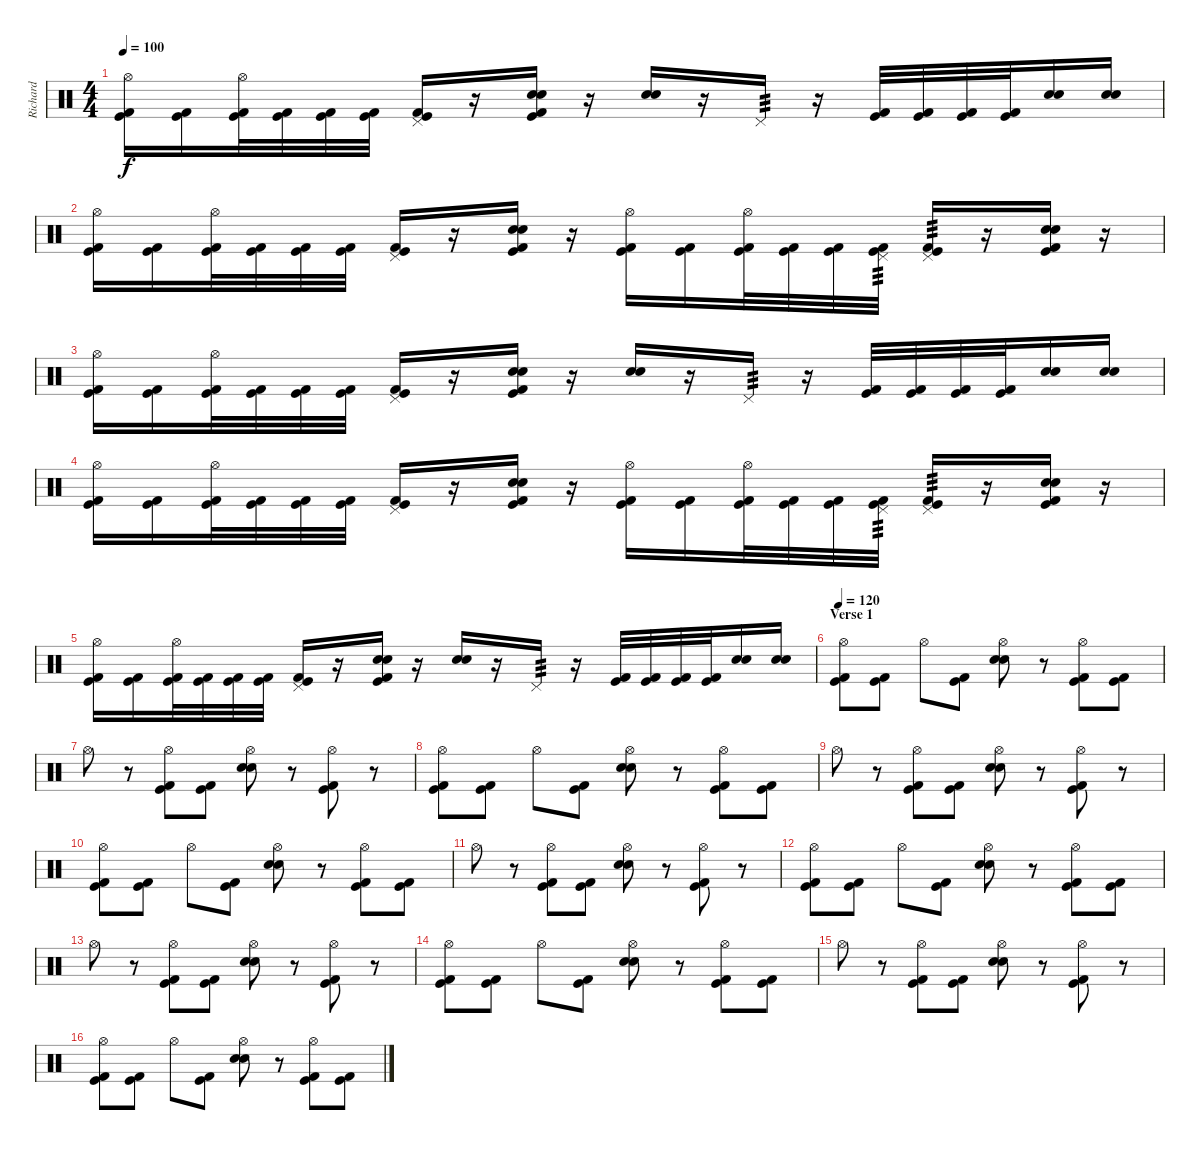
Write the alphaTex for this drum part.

\track ("Richard" "Richard") {instrument percussion}
\staff {score}
\articulation defaults
\ts (4 4)
\tempo 100
\clef neutral
\ks c
("Hi-Hat (open)" "Kick (hit)" "Kick (hit) 2").16{dy f} ("Kick (hit)" "Kick (hit) 2").16 ("Hi-Hat (open)" "Kick (hit)" "Kick (hit) 2").32 ("Kick (hit)" "Kick (hit) 2").32 ("Kick (hit)" "Kick (hit) 2").32 ("Kick (hit)" "Kick (hit) 2").32 ("Pedal Hi-Hat (hit)" "Kick (hit)" "Kick (hit) 2").16 r.16 ("Snare (hit) 2" "Electric Snare (hit)" "Kick (hit)" "Kick (hit) 2").16 r.16 ("Snare (hit) 2" "Electric Snare (hit)").16 r.16 "Pedal Hi-Hat (hit)".16{tp 3} r.16 ("Kick (hit)" "Kick (hit) 2").32 ("Kick (hit)" "Kick (hit) 2").32 ("Kick (hit)" "Kick (hit) 2").32 ("Kick (hit)" "Kick (hit) 2").32 ("Snare (hit) 2" "Electric Snare (hit)").16 ("Snare (hit) 2" "Electric Snare (hit)").16 |
("Hi-Hat (open)" "Kick (hit)" "Kick (hit) 2").16 ("Kick (hit)" "Kick (hit) 2").16 ("Hi-Hat (open)" "Kick (hit)" "Kick (hit) 2").32 ("Kick (hit)" "Kick (hit) 2").32 ("Kick (hit)" "Kick (hit) 2").32 ("Kick (hit)" "Kick (hit) 2").32 ("Pedal Hi-Hat (hit)" "Kick (hit)" "Kick (hit) 2").16 r.16 ("Snare (hit) 2" "Electric Snare (hit)" "Kick (hit)" "Kick (hit) 2").16 r.16 ("Hi-Hat (open)" "Kick (hit)" "Kick (hit) 2").16 ("Kick (hit)" "Kick (hit) 2").16 ("Hi-Hat (open)" "Kick (hit)" "Kick (hit) 2").32 ("Kick (hit)" "Kick (hit) 2").32 ("Kick (hit)" "Kick (hit) 2").32 ("Pedal Hi-Hat (hit)" "Kick (hit)" "Kick (hit) 2").32{tp 3} ("Pedal Hi-Hat (hit)" "Kick (hit)" "Kick (hit) 2").16{tp 3} r.16 ("Snare (hit) 2" "Electric Snare (hit)" "Kick (hit)" "Kick (hit) 2").16 r.16 |
("Hi-Hat (open)" "Kick (hit)" "Kick (hit) 2").16 ("Kick (hit)" "Kick (hit) 2").16 ("Hi-Hat (open)" "Kick (hit)" "Kick (hit) 2").32 ("Kick (hit)" "Kick (hit) 2").32 ("Kick (hit)" "Kick (hit) 2").32 ("Kick (hit)" "Kick (hit) 2").32 ("Pedal Hi-Hat (hit)" "Kick (hit)" "Kick (hit) 2").16 r.16 ("Snare (hit) 2" "Electric Snare (hit)" "Kick (hit)" "Kick (hit) 2").16 r.16 ("Snare (hit) 2" "Electric Snare (hit)").16 r.16 "Pedal Hi-Hat (hit)".16{tp 3} r.16 ("Kick (hit)" "Kick (hit) 2").32 ("Kick (hit)" "Kick (hit) 2").32 ("Kick (hit)" "Kick (hit) 2").32 ("Kick (hit)" "Kick (hit) 2").32 ("Snare (hit) 2" "Electric Snare (hit)").16 ("Snare (hit) 2" "Electric Snare (hit)").16 |
("Hi-Hat (open)" "Kick (hit)" "Kick (hit) 2").16 ("Kick (hit)" "Kick (hit) 2").16 ("Hi-Hat (open)" "Kick (hit)" "Kick (hit) 2").32 ("Kick (hit)" "Kick (hit) 2").32 ("Kick (hit)" "Kick (hit) 2").32 ("Kick (hit)" "Kick (hit) 2").32 ("Pedal Hi-Hat (hit)" "Kick (hit)" "Kick (hit) 2").16 r.16 ("Snare (hit) 2" "Electric Snare (hit)" "Kick (hit)" "Kick (hit) 2").16 r.16 ("Hi-Hat (open)" "Kick (hit)" "Kick (hit) 2").16 ("Kick (hit)" "Kick (hit) 2").16 ("Hi-Hat (open)" "Kick (hit)" "Kick (hit) 2").32 ("Kick (hit)" "Kick (hit) 2").32 ("Kick (hit)" "Kick (hit) 2").32 ("Pedal Hi-Hat (hit)" "Kick (hit)" "Kick (hit) 2").32{tp 3} ("Pedal Hi-Hat (hit)" "Kick (hit)" "Kick (hit) 2").16{tp 3} r.16 ("Snare (hit) 2" "Electric Snare (hit)" "Kick (hit)" "Kick (hit) 2").16 r.16 |
("Hi-Hat (open)" "Kick (hit)" "Kick (hit) 2").16 ("Kick (hit)" "Kick (hit) 2").16 ("Hi-Hat (open)" "Kick (hit)" "Kick (hit) 2").32 ("Kick (hit)" "Kick (hit) 2").32 ("Kick (hit)" "Kick (hit) 2").32 ("Kick (hit)" "Kick (hit) 2").32 ("Pedal Hi-Hat (hit)" "Kick (hit)" "Kick (hit) 2").16 r.16 ("Snare (hit) 2" "Electric Snare (hit)" "Kick (hit)" "Kick (hit) 2").16 r.16 ("Snare (hit) 2" "Electric Snare (hit)").16 r.16 "Pedal Hi-Hat (hit)".16{tp 3} r.16 ("Kick (hit)" "Kick (hit) 2").32 ("Kick (hit)" "Kick (hit) 2").32 ("Kick (hit)" "Kick (hit) 2").32 ("Kick (hit)" "Kick (hit) 2").32 ("Snare (hit) 2" "Electric Snare (hit)").16 ("Snare (hit) 2" "Electric Snare (hit)").16 |
\section ("" "Verse 1")
\tempo 120
("Hi-Hat (open)" "Kick (hit)" "Kick (hit) 2").8 ("Kick (hit)" "Kick (hit) 2").8 "Hi-Hat (open)".8 ("Kick (hit)" "Kick (hit) 2").8 ("Hi-Hat (open)" "Snare (hit) 2" "Electric Snare (hit)").8 r.8 ("Hi-Hat (open)" "Kick (hit)" "Kick (hit) 2").8 ("Kick (hit)" "Kick (hit) 2").8 |
"Hi-Hat (open)".8 r.8 ("Hi-Hat (open)" "Kick (hit)" "Kick (hit) 2").8 ("Kick (hit)" "Kick (hit) 2").8 ("Hi-Hat (open)" "Snare (hit) 2" "Electric Snare (hit)").8 r.8 ("Hi-Hat (open)" "Kick (hit)" "Kick (hit) 2").8 r.8 |
("Hi-Hat (open)" "Kick (hit)" "Kick (hit) 2").8 ("Kick (hit)" "Kick (hit) 2").8 "Hi-Hat (open)".8 ("Kick (hit)" "Kick (hit) 2").8 ("Hi-Hat (open)" "Snare (hit) 2" "Electric Snare (hit)").8 r.8 ("Hi-Hat (open)" "Kick (hit)" "Kick (hit) 2").8 ("Kick (hit)" "Kick (hit) 2").8 |
"Hi-Hat (open)".8 r.8 ("Hi-Hat (open)" "Kick (hit)" "Kick (hit) 2").8 ("Kick (hit)" "Kick (hit) 2").8 ("Hi-Hat (open)" "Snare (hit) 2" "Electric Snare (hit)").8 r.8 ("Hi-Hat (open)" "Kick (hit)" "Kick (hit) 2").8 r.8 |
("Hi-Hat (open)" "Kick (hit)" "Kick (hit) 2").8 ("Kick (hit)" "Kick (hit) 2").8 "Hi-Hat (open)".8 ("Kick (hit)" "Kick (hit) 2").8 ("Hi-Hat (open)" "Snare (hit) 2" "Electric Snare (hit)").8 r.8 ("Hi-Hat (open)" "Kick (hit)" "Kick (hit) 2").8 ("Kick (hit)" "Kick (hit) 2").8 |
"Hi-Hat (open)".8 r.8 ("Hi-Hat (open)" "Kick (hit)" "Kick (hit) 2").8 ("Kick (hit)" "Kick (hit) 2").8 ("Hi-Hat (open)" "Snare (hit) 2" "Electric Snare (hit)").8 r.8 ("Hi-Hat (open)" "Kick (hit)" "Kick (hit) 2").8 r.8 |
("Hi-Hat (open)" "Kick (hit)" "Kick (hit) 2").8 ("Kick (hit)" "Kick (hit) 2").8 "Hi-Hat (open)".8 ("Kick (hit)" "Kick (hit) 2").8 ("Hi-Hat (open)" "Snare (hit) 2" "Electric Snare (hit)").8 r.8 ("Hi-Hat (open)" "Kick (hit)" "Kick (hit) 2").8 ("Kick (hit)" "Kick (hit) 2").8 |
"Hi-Hat (open)".8 r.8 ("Hi-Hat (open)" "Kick (hit)" "Kick (hit) 2").8 ("Kick (hit)" "Kick (hit) 2").8 ("Hi-Hat (open)" "Snare (hit) 2" "Electric Snare (hit)").8 r.8 ("Hi-Hat (open)" "Kick (hit)" "Kick (hit) 2").8 r.8 |
("Hi-Hat (open)" "Kick (hit)" "Kick (hit) 2").8 ("Kick (hit)" "Kick (hit) 2").8 "Hi-Hat (open)".8 ("Kick (hit)" "Kick (hit) 2").8 ("Hi-Hat (open)" "Snare (hit) 2" "Electric Snare (hit)").8 r.8 ("Hi-Hat (open)" "Kick (hit)" "Kick (hit) 2").8 ("Kick (hit)" "Kick (hit) 2").8 |
"Hi-Hat (open)".8 r.8 ("Hi-Hat (open)" "Kick (hit)" "Kick (hit) 2").8 ("Kick (hit)" "Kick (hit) 2").8 ("Hi-Hat (open)" "Snare (hit) 2" "Electric Snare (hit)").8 r.8 ("Hi-Hat (open)" "Kick (hit)" "Kick (hit) 2").8 r.8 |
("Hi-Hat (open)" "Kick (hit)" "Kick (hit) 2").8 ("Kick (hit)" "Kick (hit) 2").8 "Hi-Hat (open)".8 ("Kick (hit)" "Kick (hit) 2").8 ("Hi-Hat (open)" "Snare (hit) 2" "Electric Snare (hit)").8 r.8 ("Hi-Hat (open)" "Kick (hit)" "Kick (hit) 2").8 ("Kick (hit)" "Kick (hit) 2").8
